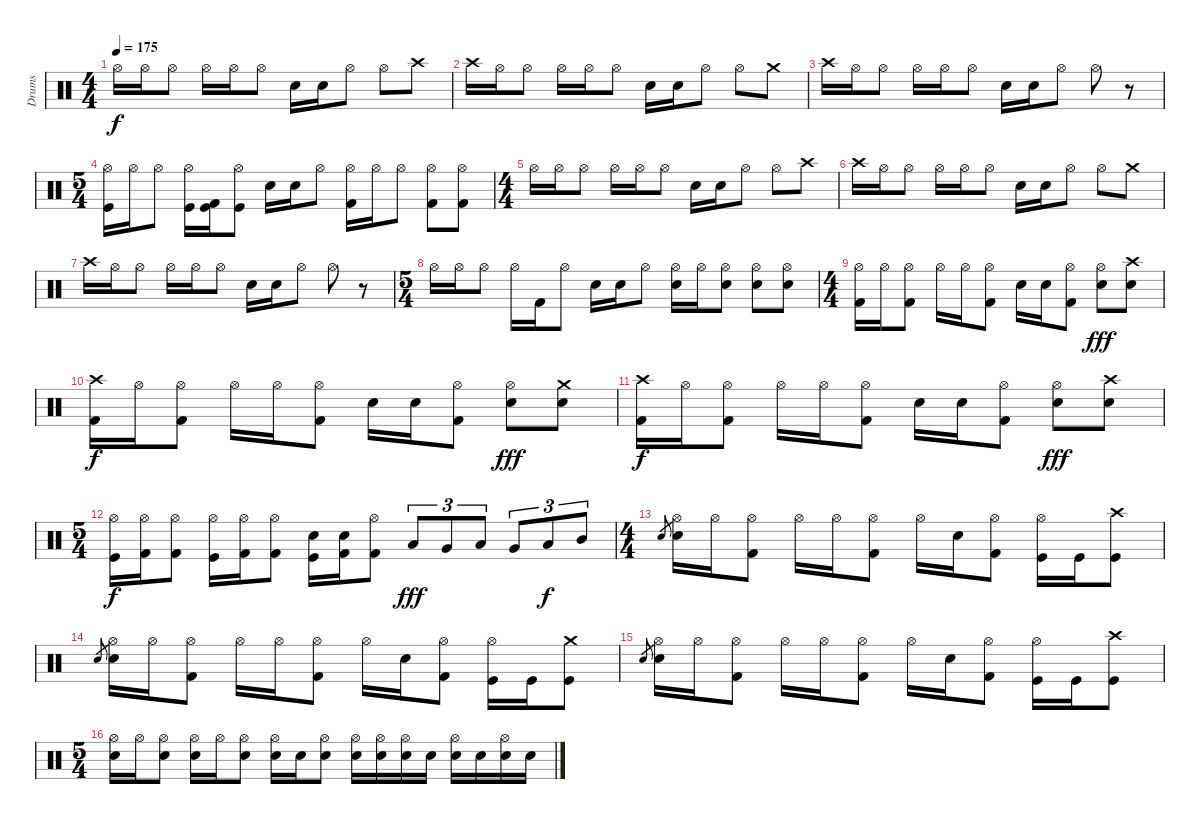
\track ("Drums" "Drums") {instrument percussion}
\staff {score}
\articulation defaults
\ts (4 4)
\tempo 175
\clef neutral
\ks c "Hi-Hat (open)"{x}.16{dy f} "Hi-Hat (open)"{x}.16 "Hi-Hat (open)".8 "Hi-Hat (open)"{x}.16 "Hi-Hat (open)"{x}.16 "Hi-Hat (open)".8 "Snare (hit)"{x}.16 "Snare (hit)"{x}.16 "Hi-Hat (open)".8 "Hi-Hat (open)".8 "Crash high (hit)".8
|
"Crash high (hit)"{x}.16 "Hi-Hat (open)"{x}.16 "Hi-Hat (open)".8 "Hi-Hat (open)"{x}.16 "Hi-Hat (open)"{x}.16 "Hi-Hat (open)".8 "Snare (hit)"{x}.16 "Snare (hit)"{x}.16 "Hi-Hat (open)".8 "Hi-Hat (open)".8 "Crash medium (hit)".8 |
"Crash high (hit)".16 "Hi-Hat (open)"{x}.16 "Hi-Hat (open)".8 "Hi-Hat (open)"{x}.16 "Hi-Hat (open)"{x}.16 "Hi-Hat (open)".8 "Snare (hit)"{x}.16 "Snare (hit)"{x}.16 "Hi-Hat (open)".8 "Hi-Hat (open)".8 r.8 |
\ts (5 4)
("Hi-Hat (open)"{x} "Kick (hit)").16 "Hi-Hat (open)"{x}.16 "Hi-Hat (open)".8 ("Hi-Hat (open)"{x} "Kick (hit)").16 ("Kick (hit) 2"{x} "Kick (hit)").16 ("Hi-Hat (open)" "Kick (hit)").8 "Snare (hit)"{x}.16 "Snare (hit)"{x}.16 "Hi-Hat (open)".8 ("Hi-Hat (open)"{x} "Kick (hit) 2").16 "Hi-Hat (open)"{x}.16 "Hi-Hat (open)".8 ("Hi-Hat (open)" "Kick (hit) 2").8 ("Hi-Hat (open)" "Kick (hit) 2").8 |
\ts (4 4)
"Hi-Hat (open)"{x}.16 "Hi-Hat (open)"{x}.16 "Hi-Hat (open)".8 "Hi-Hat (open)"{x}.16 "Hi-Hat (open)"{x}.16 "Hi-Hat (open)".8 "Snare (hit)"{x}.16 "Snare (hit)"{x}.16 "Hi-Hat (open)".8 "Hi-Hat (open)".8 "Crash high (hit)".8 |
"Crash high (hit)"{x}.16 "Hi-Hat (open)"{x}.16 "Hi-Hat (open)".8 "Hi-Hat (open)"{x}.16 "Hi-Hat (open)"{x}.16 "Hi-Hat (open)".8 "Snare (hit)"{x}.16 "Snare (hit)"{x}.16 "Hi-Hat (open)".8 "Hi-Hat (open)".8 "Crash medium (hit)".8 |
"Crash high (hit)".16 "Hi-Hat (open)"{x}.16 "Hi-Hat (open)".8 "Hi-Hat (open)"{x}.16 "Hi-Hat (open)"{x}.16 "Hi-Hat (open)".8 "Snare (hit)"{x}.16 "Snare (hit)"{x}.16 "Hi-Hat (open)".8 "Hi-Hat (open)".8 r.8 |
\ts (5 4)
"Hi-Hat (open)"{x}.16 "Hi-Hat (open)"{x}.16 "Hi-Hat (open)".8 "Hi-Hat (open)"{x}.16 "Kick (hit) 2"{x}.16 "Hi-Hat (open)".8 "Snare (hit)"{x}.16 "Snare (hit)"{x}.16 "Hi-Hat (open)".8 ("Hi-Hat (open)"{x} "Snare (hit) 2").16 "Hi-Hat (open)"{x}.16 ("Hi-Hat (open)" "Snare (hit) 2").8 ("Hi-Hat (open)" "Snare (hit) 2").8 ("Hi-Hat (open)" "Snare (hit) 2").8 |
\ts (4 4)
("Hi-Hat (open)"{x} "Kick (hit) 2").16 "Hi-Hat (open)"{x}.16 ("Hi-Hat (open)" "Kick (hit) 2").8 "Hi-Hat (open)"{x}.16 "Hi-Hat (open)"{x}.16 ("Hi-Hat (open)" "Kick (hit) 2").8 "Snare (hit)"{x}.16 "Snare (hit)"{x}.16 ("Hi-Hat (open)" "Kick (hit) 2").8 ("Hi-Hat (open)" "Snare (hit) 2").8{dy fff} ("Crash high (hit)" "Snare (hit) 2").8 |
("Crash high (hit)"{x} "Kick (hit) 2").16{dy f} "Hi-Hat (open)"{x}.16 ("Hi-Hat (open)" "Kick (hit) 2").8 "Hi-Hat (open)"{x}.16 "Hi-Hat (open)"{x}.16 ("Hi-Hat (open)" "Kick (hit) 2").8 "Snare (hit)"{x}.16 "Snare (hit)"{x}.16 ("Hi-Hat (open)" "Kick (hit) 2").8 ("Hi-Hat (open)" "Snare (hit) 2").8{dy fff} ("Crash medium (hit)" "Snare (hit) 2").8 |
("Crash high (hit)" "Kick (hit) 2").16{dy f} "Hi-Hat (open)"{x}.16 ("Hi-Hat (open)" "Kick (hit) 2").8 "Hi-Hat (open)"{x}.16 "Hi-Hat (open)"{x}.16 ("Hi-Hat (open)" "Kick (hit) 2").8 "Snare (hit)"{x}.16 "Snare (hit)"{x}.16 ("Hi-Hat (open)" "Kick (hit) 2").8 ("Hi-Hat (open)" "Snare (hit) 2").8{dy fff} ("Crash high (hit)" "Snare (hit) 2").8 |
\ts (5 4)
("Hi-Hat (open)"{x} "Kick (hit)").16{dy f} ("Hi-Hat (open)"{x} "Kick (hit) 2").16 ("Hi-Hat (open)" "Kick (hit) 2").8 ("Hi-Hat (open)"{x} "Kick (hit)").16 ("Hi-Hat (open)"{x} "Kick (hit) 2").16 ("Hi-Hat (open)" "Kick (hit) 2").8 ("Snare (hit)"{x} "Kick (hit)").16 ("Snare (hit)"{x} "Kick (hit) 2").16 ("Hi-Hat (open)" "Kick (hit) 2").8 "Low Floor Tom (hit)".8{tu (3 2) dy fff} "Very Low Tom (hit)".8{tu (3 2)} "Low Tom (hit)".8{tu (3 2)} "Very Low Tom (hit)".8{tu (3 2)} "Low Tom (hit)".8{tu (3 2) dy f} "Mid Tom (hit)".8{tu (3 2)} |
\ts (4 4)
"Snare (hit) 2".8{gr} ("Hi-Hat (open)" "Snare (hit) 2").16 "Hi-Hat (open)"{x}.16 ("Hi-Hat (open)" "Kick (hit) 2").8 "Hi-Hat (open)".16 "Hi-Hat (open)"{x}.16 ("Hi-Hat (open)" "Kick (hit) 2").8 "Hi-Hat (open)".16 "Snare (hit)"{x}.16 ("Hi-Hat (open)" "Kick (hit) 2").8 ("Hi-Hat (open)" "Kick (hit)").16 "Kick (hit)".16 ("Crash high (hit)" "Kick (hit)").8 |
"Snare (hit) 2".8{gr} ("Hi-Hat (open)" "Snare (hit) 2").16 "Hi-Hat (open)"{x}.16 ("Hi-Hat (open)" "Kick (hit) 2").8 "Hi-Hat (open)".16 "Hi-Hat (open)"{x}.16 ("Hi-Hat (open)" "Kick (hit) 2").8 "Hi-Hat (open)".16 "Snare (hit)"{x}.16 ("Hi-Hat (open)" "Kick (hit) 2").8 ("Hi-Hat (open)" "Kick (hit)").16 "Kick (hit)".16 ("Crash medium (hit)" "Kick (hit)").8 |
"Snare (hit) 2".8{gr} ("Hi-Hat (open)" "Snare (hit) 2").16 "Hi-Hat (open)"{x}.16 ("Hi-Hat (open)" "Kick (hit) 2").8 "Hi-Hat (open)".16 "Hi-Hat (open)"{x}.16 ("Hi-Hat (open)" "Kick (hit) 2").8 "Hi-Hat (open)".16 "Snare (hit)"{x}.16 ("Hi-Hat (open)" "Kick (hit) 2").8 ("Hi-Hat (open)" "Kick (hit)").16 "Kick (hit)".16 ("Crash high (hit)" "Kick (hit)").8 |
\ts (5 4)
("Hi-Hat (open)" "Snare (hit) 2").16 "Hi-Hat (open)"{x}.16 ("Hi-Hat (open)" "Snare (hit) 2").8 ("Hi-Hat (open)" "Snare (hit) 2").16 "Hi-Hat (open)"{x}.16 ("Hi-Hat (open)" "Snare (hit) 2").8 ("Hi-Hat (open)" "Snare (hit) 2").16 "Snare (hit)"{x}.16 ("Hi-Hat (open)" "Snare (hit) 2").8 ("Hi-Hat (open)" "Snare (hit) 2").16 ("Hi-Hat (open)"{x} "Snare (hit) 2").16 ("Hi-Hat (open)" "Snare (hit) 2").16 "Snare (hit) 2".16 ("Hi-Hat (open)" "Snare (hit) 2").16 "Snare (hit) 2".16 ("Hi-Hat (open)" "Snare (hit) 2").16 "Snare (hit) 2".16
